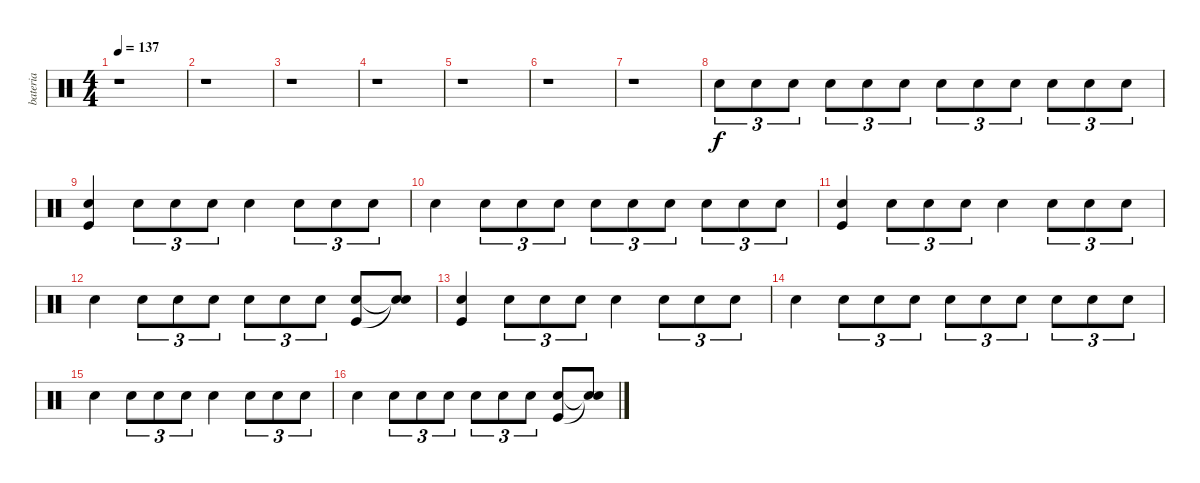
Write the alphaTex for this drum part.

\track ("bateria" "bateria") {instrument percussion}
\staff {score}
\articulation defaults
\ts (4 4)
\tempo 137
\clef neutral
\ks c
r.1{dy f} |
r.1 |
r.1 |
r.1 |
r.1 |
r.1 |
r.1 |
"Snare (hit) 2".8{tu (3 2)} "Snare (hit) 2".8{tu (3 2)} "Snare (hit) 2".8{tu (3 2)} "Snare (hit) 2".8{tu (3 2)} "Snare (hit) 2".8{tu (3 2)} "Snare (hit) 2".8{tu (3 2)} "Snare (hit) 2".8{tu (3 2)} "Snare (hit) 2".8{tu (3 2)} "Snare (hit) 2".8{tu (3 2)} "Snare (hit) 2".8{tu (3 2)} "Snare (hit) 2".8{tu (3 2)} "Snare (hit) 2".8{tu (3 2)} |
("Snare (hit) 2" "Kick (hit)").4 "Snare (hit) 2".8{tu (3 2)} "Snare (hit) 2".8{tu (3 2)} "Snare (hit) 2".8{tu (3 2)} "Snare (hit) 2".4 "Snare (hit) 2".8{tu (3 2)} "Snare (hit) 2".8{tu (3 2)} "Snare (hit) 2".8{tu (3 2)} |
"Snare (hit) 2".4 "Snare (hit) 2".8{tu (3 2)} "Snare (hit) 2".8{tu (3 2)} "Snare (hit) 2".8{tu (3 2)} "Snare (hit) 2".8{tu (3 2)} "Snare (hit) 2".8{tu (3 2)} "Snare (hit) 2".8{tu (3 2)} "Snare (hit) 2".8{tu (3 2)} "Snare (hit) 2".8{tu (3 2)} "Snare (hit) 2".8{tu (3 2)} |
("Snare (hit) 2" "Kick (hit)").4 "Snare (hit) 2".8{tu (3 2)} "Snare (hit) 2".8{tu (3 2)} "Snare (hit) 2".8{tu (3 2)} "Snare (hit) 2".4 "Snare (hit) 2".8{tu (3 2)} "Snare (hit) 2".8{tu (3 2)} "Snare (hit) 2".8{tu (3 2)} |
"Snare (hit) 2".4 "Snare (hit) 2".8{tu (3 2)} "Snare (hit) 2".8{tu (3 2)} "Snare (hit) 2".8{tu (3 2)} "Snare (hit) 2".8{tu (3 2)} "Snare (hit) 2".8{tu (3 2)} "Snare (hit) 2".8{tu (3 2)} ("Snare (hit) 2" "Kick (hit)").8 ("Snare (hit)"{t} "Snare (hit)"{t}).8 |
("Snare (hit) 2" "Kick (hit)").4 "Snare (hit) 2".8{tu (3 2)} "Snare (hit) 2".8{tu (3 2)} "Snare (hit) 2".8{tu (3 2)} "Snare (hit) 2".4 "Snare (hit) 2".8{tu (3 2)} "Snare (hit) 2".8{tu (3 2)} "Snare (hit) 2".8{tu (3 2)} |
"Snare (hit) 2".4 "Snare (hit) 2".8{tu (3 2)} "Snare (hit) 2".8{tu (3 2)} "Snare (hit) 2".8{tu (3 2)} "Snare (hit) 2".8{tu (3 2)} "Snare (hit) 2".8{tu (3 2)} "Snare (hit) 2".8{tu (3 2)} "Snare (hit) 2".8{tu (3 2)} "Snare (hit) 2".8{tu (3 2)} "Snare (hit) 2".8{tu (3 2)} |
"Snare (hit) 2".4 "Snare (hit) 2".8{tu (3 2)} "Snare (hit) 2".8{tu (3 2)} "Snare (hit) 2".8{tu (3 2)} "Snare (hit) 2".4 "Snare (hit) 2".8{tu (3 2)} "Snare (hit) 2".8{tu (3 2)} "Snare (hit) 2".8{tu (3 2)} |
"Snare (hit) 2".4 "Snare (hit) 2".8{tu (3 2)} "Snare (hit) 2".8{tu (3 2)} "Snare (hit) 2".8{tu (3 2)} "Snare (hit) 2".8{tu (3 2)} "Snare (hit) 2".8{tu (3 2)} "Snare (hit) 2".8{tu (3 2)} ("Snare (hit) 2" "Kick (hit)").8 ("Snare (hit)"{t} "Snare (hit)"{t}).8
